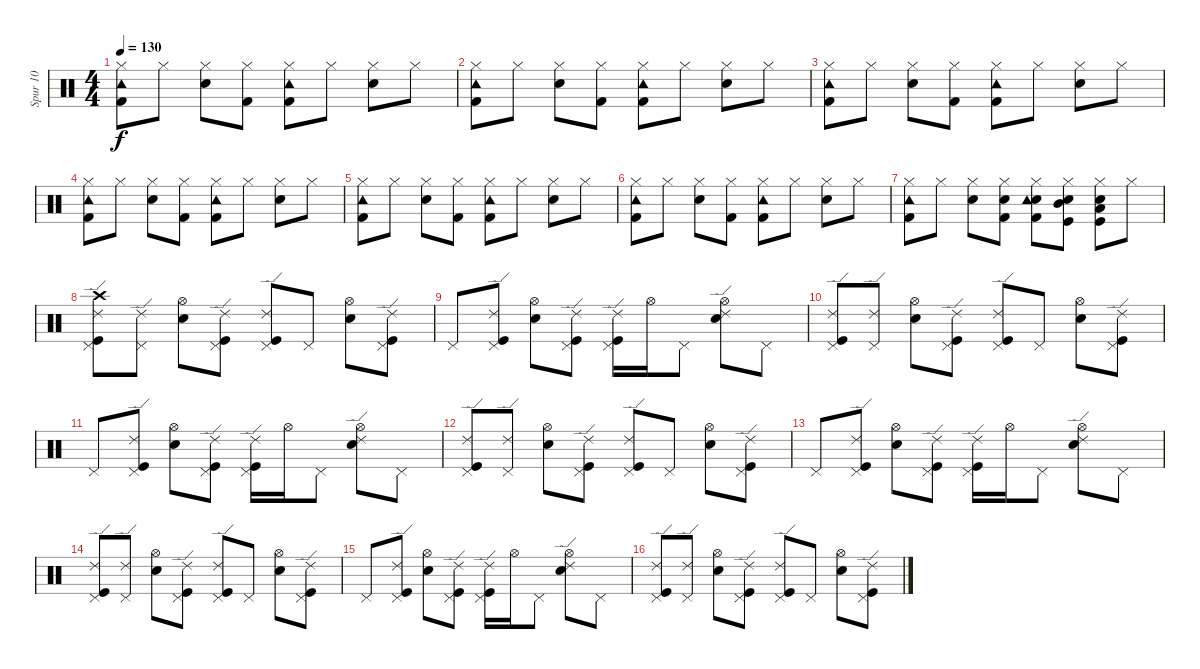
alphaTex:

\track ("Spur 10" "Spur 10") {instrument percussion}
\staff {score}
\articulation defaults
\ts (4 4)
\tempo 130
\clef neutral
\ks c
("Hi-Hat (closed)" "Tambourine (hit)" "Kick (hit) 2").8{dy f} "Hi-Hat (closed)".8 ("Hi-Hat (closed)" "Electric Snare (hit)").8 ("Hi-Hat (closed)" "Kick (hit) 2").8 ("Tambourine (hit)" "Hi-Hat (closed)" "Kick (hit) 2").8 "Hi-Hat (closed)".8 ("Hi-Hat (closed)" "Electric Snare (hit)").8 "Hi-Hat (closed)".8 |
("Tambourine (hit)" "Hi-Hat (closed)" "Kick (hit) 2").8 "Hi-Hat (closed)".8 ("Hi-Hat (closed)" "Electric Snare (hit)").8 ("Hi-Hat (closed)" "Kick (hit) 2").8 ("Tambourine (hit)" "Hi-Hat (closed)" "Kick (hit) 2").8 "Hi-Hat (closed)".8 ("Hi-Hat (closed)" "Electric Snare (hit)").8 "Hi-Hat (closed)".8 |
("Hi-Hat (closed)" "Tambourine (hit)" "Kick (hit) 2").8 "Hi-Hat (closed)".8 ("Hi-Hat (closed)" "Electric Snare (hit)").8 ("Hi-Hat (closed)" "Kick (hit) 2").8 ("Tambourine (hit)" "Hi-Hat (closed)" "Kick (hit) 2").8 "Hi-Hat (closed)".8 ("Hi-Hat (closed)" "Electric Snare (hit)").8 "Hi-Hat (closed)".8 |
("Tambourine (hit)" "Hi-Hat (closed)" "Kick (hit) 2").8 "Hi-Hat (closed)".8 ("Hi-Hat (closed)" "Electric Snare (hit)").8 ("Hi-Hat (closed)" "Kick (hit) 2").8 ("Tambourine (hit)" "Hi-Hat (closed)" "Kick (hit) 2").8 "Hi-Hat (closed)".8 ("Hi-Hat (closed)" "Electric Snare (hit)").8 "Hi-Hat (closed)".8 |
("Hi-Hat (closed)" "Tambourine (hit)" "Kick (hit) 2").8 "Hi-Hat (closed)".8 ("Hi-Hat (closed)" "Electric Snare (hit)").8 ("Hi-Hat (closed)" "Kick (hit) 2").8 ("Tambourine (hit)" "Hi-Hat (closed)" "Kick (hit) 2").8 "Hi-Hat (closed)".8 ("Hi-Hat (closed)" "Electric Snare (hit)").8 "Hi-Hat (closed)".8 |
("Tambourine (hit)" "Hi-Hat (closed)" "Kick (hit) 2").8 "Hi-Hat (closed)".8 ("Hi-Hat (closed)" "Electric Snare (hit)").8 ("Hi-Hat (closed)" "Kick (hit) 2").8 ("Tambourine (hit)" "Hi-Hat (closed)" "Kick (hit) 2").8 "Hi-Hat (closed)".8 ("Hi-Hat (closed)" "Electric Snare (hit)").8 "Hi-Hat (closed)".8 |
("Hi-Hat (closed)" "Tambourine (hit)" "Kick (hit) 2").8 "Hi-Hat (closed)".8 ("Hi-Hat (closed)" "Electric Snare (hit)").8 ("Electric Snare (hit)" "Hi-Hat (closed)" "Kick (hit) 2").8 ("Electric Snare (hit)" "Tambourine (hit)" "Hi-Hat (closed)" "Kick (hit) 2").8 ("Mid Tom (hit)" "Kick (hit)" "Snare (hit) 2" "Hi-Hat (closed)").8 ("Low Tom (hit)" "Kick (hit)" "Hi-Hat (closed)" "Electric Snare (hit)").8 "Hi-Hat (closed)".8 |
("Kick (hit)" "Pedal Hi-Hat (hit)" "Ride (edge) 2" "Crash high (hit)").8 ("Pedal Hi-Hat (hit)" "Ride (edge) 2").8 ("Electric Snare (hit)" "Hi-Hat (open)").8 ("Kick (hit)" "Pedal Hi-Hat (hit)" "Ride (edge) 2").8 ("Kick (hit)" "Pedal Hi-Hat (hit)" "Ride (edge) 2").8 "Pedal Hi-Hat (hit)".8 ("Electric Snare (hit)" "Hi-Hat (open)").8 ("Kick (hit)" "Pedal Hi-Hat (hit)" "Ride (edge) 2").8 |
"Pedal Hi-Hat (hit)".8 ("Kick (hit)" "Pedal Hi-Hat (hit)" "Ride (edge) 2").8 ("Electric Snare (hit)" "Hi-Hat (open)").8 ("Kick (hit)" "Pedal Hi-Hat (hit)" "Ride (edge) 2").8 ("Kick (hit)" "Pedal Hi-Hat (hit)" "Ride (edge) 2").16 "Hi-Hat (open)".16 "Pedal Hi-Hat (hit)".8 ("Electric Snare (hit)" "Hi-Hat (open)" "Ride (edge) 2").8 "Pedal Hi-Hat (hit)".8 |
("Kick (hit)" "Pedal Hi-Hat (hit)" "Ride (edge) 2").8 ("Pedal Hi-Hat (hit)" "Ride (edge) 2").8 ("Electric Snare (hit)" "Hi-Hat (open)").8 ("Kick (hit)" "Pedal Hi-Hat (hit)" "Ride (edge) 2").8 ("Kick (hit)" "Pedal Hi-Hat (hit)" "Ride (edge) 2").8 "Pedal Hi-Hat (hit)".8 ("Electric Snare (hit)" "Hi-Hat (open)").8 ("Kick (hit)" "Pedal Hi-Hat (hit)" "Ride (edge) 2").8 |
"Pedal Hi-Hat (hit)".8 ("Kick (hit)" "Pedal Hi-Hat (hit)" "Ride (edge) 2").8 ("Electric Snare (hit)" "Hi-Hat (open)").8 ("Kick (hit)" "Pedal Hi-Hat (hit)" "Ride (edge) 2").8 ("Kick (hit)" "Pedal Hi-Hat (hit)" "Ride (edge) 2").16 "Hi-Hat (open)".16 "Pedal Hi-Hat (hit)".8 ("Electric Snare (hit)" "Hi-Hat (open)" "Ride (edge) 2").8 "Pedal Hi-Hat (hit)".8 |
("Kick (hit)" "Pedal Hi-Hat (hit)" "Ride (edge) 2").8 ("Pedal Hi-Hat (hit)" "Ride (edge) 2").8 ("Electric Snare (hit)" "Hi-Hat (open)").8 ("Kick (hit)" "Pedal Hi-Hat (hit)" "Ride (edge) 2").8 ("Kick (hit)" "Pedal Hi-Hat (hit)" "Ride (edge) 2").8 "Pedal Hi-Hat (hit)".8 ("Electric Snare (hit)" "Hi-Hat (open)").8 ("Kick (hit)" "Pedal Hi-Hat (hit)" "Ride (edge) 2").8 |
"Pedal Hi-Hat (hit)".8 ("Kick (hit)" "Pedal Hi-Hat (hit)" "Ride (edge) 2").8 ("Electric Snare (hit)" "Hi-Hat (open)").8 ("Kick (hit)" "Pedal Hi-Hat (hit)" "Ride (edge) 2").8 ("Kick (hit)" "Pedal Hi-Hat (hit)" "Ride (edge) 2").16 "Hi-Hat (open)".16 "Pedal Hi-Hat (hit)".8 ("Electric Snare (hit)" "Hi-Hat (open)" "Ride (edge) 2").8 "Pedal Hi-Hat (hit)".8 |
("Kick (hit)" "Pedal Hi-Hat (hit)" "Ride (edge) 2").8 ("Pedal Hi-Hat (hit)" "Ride (edge) 2").8 ("Electric Snare (hit)" "Hi-Hat (open)").8 ("Kick (hit)" "Pedal Hi-Hat (hit)" "Ride (edge) 2").8 ("Kick (hit)" "Pedal Hi-Hat (hit)" "Ride (edge) 2").8 "Pedal Hi-Hat (hit)".8 ("Electric Snare (hit)" "Hi-Hat (open)").8 ("Kick (hit)" "Pedal Hi-Hat (hit)" "Ride (edge) 2").8 |
"Pedal Hi-Hat (hit)".8 ("Kick (hit)" "Pedal Hi-Hat (hit)" "Ride (edge) 2").8 ("Electric Snare (hit)" "Hi-Hat (open)").8 ("Kick (hit)" "Pedal Hi-Hat (hit)" "Ride (edge) 2").8 ("Kick (hit)" "Pedal Hi-Hat (hit)" "Ride (edge) 2").16 "Hi-Hat (open)".16 "Pedal Hi-Hat (hit)".8 ("Electric Snare (hit)" "Hi-Hat (open)" "Ride (edge) 2").8 "Pedal Hi-Hat (hit)".8 |
("Kick (hit)" "Pedal Hi-Hat (hit)" "Ride (edge) 2").8 ("Pedal Hi-Hat (hit)" "Ride (edge) 2").8 ("Electric Snare (hit)" "Hi-Hat (open)").8 ("Kick (hit)" "Pedal Hi-Hat (hit)" "Ride (edge) 2").8 ("Kick (hit)" "Pedal Hi-Hat (hit)" "Ride (edge) 2").8 "Pedal Hi-Hat (hit)".8 ("Electric Snare (hit)" "Hi-Hat (open)").8 ("Kick (hit)" "Pedal Hi-Hat (hit)" "Ride (edge) 2").8
